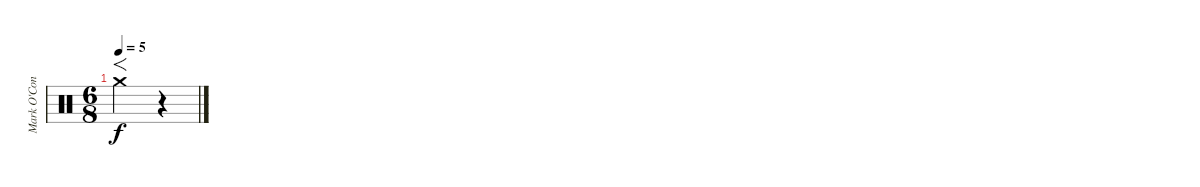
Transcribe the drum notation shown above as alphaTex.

\track ("Mark O'Connell (Drums)" "Mark O'Con") {instrument percussion}
\staff {score}
\articulation defaults
\ts (6 8)
\tempo 5
\clef neutral
\ks c "Crash medium (hit)".2{f dy f}
r.4
